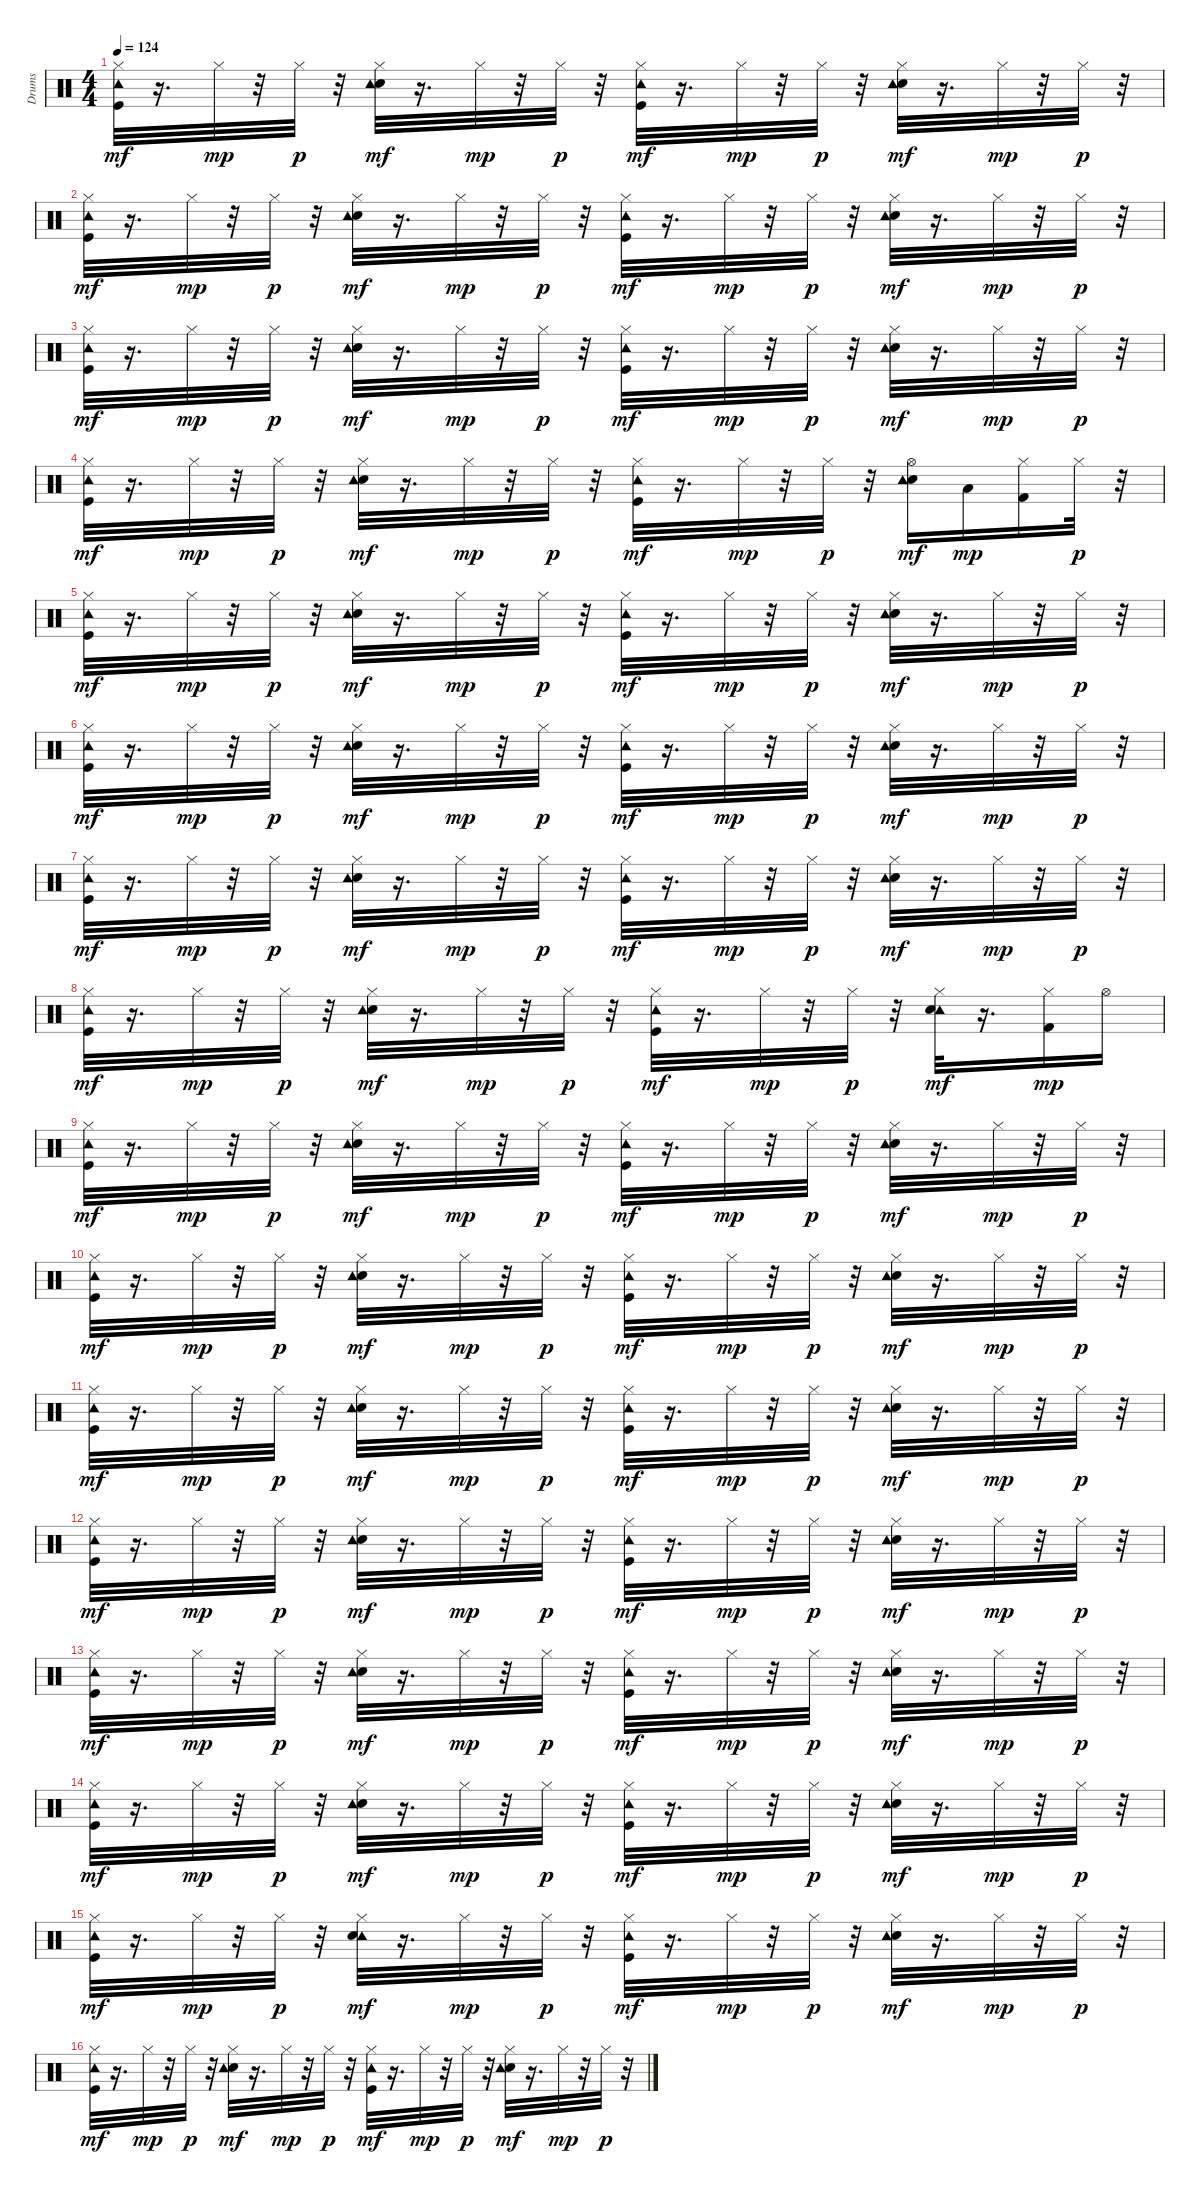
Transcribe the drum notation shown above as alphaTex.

\track ("Drums" "Drums") {instrument percussion}
\staff {score}
\articulation defaults
\ts (4 4)
\tempo 124
\clef neutral
\ks c
("Kick (hit)" "Tambourine (hit)" "Hi-Hat (closed)").32{dy mf} r.16{d} "Hi-Hat (closed)".32{dy mp} r.32 "Hi-Hat (closed)".32{dy p} r.32 ("Snare (hit) 2" "Tambourine (hit)" "Hi-Hat (closed)").32{dy mf} r.16{d} "Hi-Hat (closed)".32{dy mp} r.32 "Hi-Hat (closed)".32{dy p} r.32 ("Kick (hit)" "Tambourine (hit)" "Hi-Hat (closed)").32{dy mf} r.16{d} "Hi-Hat (closed)".32{dy mp} r.32 "Hi-Hat (closed)".32{dy p} r.32 ("Snare (hit) 2" "Tambourine (hit)" "Hi-Hat (closed)").32{dy mf} r.16{d} "Hi-Hat (closed)".32{dy mp} r.32 "Hi-Hat (closed)".32{dy p} r.32 |
("Tambourine (hit)" "Hi-Hat (closed)" "Kick (hit)").32{dy mf} r.16{d} "Hi-Hat (closed)".32{dy mp} r.32 "Hi-Hat (closed)".32{dy p} r.32 ("Hi-Hat (closed)" "Snare (hit) 2" "Tambourine (hit)").32{dy mf} r.16{d} "Hi-Hat (closed)".32{dy mp} r.32 "Hi-Hat (closed)".32{dy p} r.32 ("Kick (hit)" "Tambourine (hit)" "Hi-Hat (closed)").32{dy mf} r.16{d} "Hi-Hat (closed)".32{dy mp} r.32 "Hi-Hat (closed)".32{dy p} r.32 ("Snare (hit) 2" "Tambourine (hit)" "Hi-Hat (closed)").32{dy mf} r.16{d} "Hi-Hat (closed)".32{dy mp} r.32 "Hi-Hat (closed)".32{dy p} r.32 |
("Hi-Hat (closed)" "Tambourine (hit)" "Kick (hit)").32{dy mf} r.16{d} "Hi-Hat (closed)".32{dy mp} r.32 "Hi-Hat (closed)".32{dy p} r.32 ("Snare (hit) 2" "Tambourine (hit)" "Hi-Hat (closed)").32{dy mf} r.16{d} "Hi-Hat (closed)".32{dy mp} r.32 "Hi-Hat (closed)".32{dy p} r.32 ("Kick (hit)" "Tambourine (hit)" "Hi-Hat (closed)").32{dy mf} r.16{d} "Hi-Hat (closed)".32{dy mp} r.32 "Hi-Hat (closed)".32{dy p} r.32 ("Snare (hit) 2" "Tambourine (hit)" "Hi-Hat (closed)").32{dy mf} r.16{d} "Hi-Hat (closed)".32{dy mp} r.32 "Hi-Hat (closed)".32{dy p} r.32 |
("Tambourine (hit)" "Hi-Hat (closed)" "Kick (hit)").32{dy mf} r.16{d} "Hi-Hat (closed)".32{dy mp} r.32 "Hi-Hat (closed)".32{dy p} r.32 ("Hi-Hat (closed)" "Snare (hit) 2" "Tambourine (hit)").32{dy mf} r.16{d} "Hi-Hat (closed)".32{dy mp} r.32 "Hi-Hat (closed)".32{dy p} r.32 ("Kick (hit)" "Tambourine (hit)" "Hi-Hat (closed)").32{dy mf} r.16{d} "Hi-Hat (closed)".32{dy mp} r.32 "Hi-Hat (closed)".32{dy p} r.32 ("Hi-Hat (open)" "Snare (hit) 2" "Tambourine (hit)").16{dy mf} "Low Floor Tom (hit)".16{dy mp} ("Hi-Hat (closed)" "Kick (hit) 2").16 "Hi-Hat (closed)".32{dy p} r.32 |
("Tambourine (hit)" "Hi-Hat (closed)" "Kick (hit)").32{dy mf} r.16{d} "Hi-Hat (closed)".32{dy mp} r.32 "Hi-Hat (closed)".32{dy p} r.32 ("Snare (hit) 2" "Tambourine (hit)" "Hi-Hat (closed)").32{dy mf} r.16{d} "Hi-Hat (closed)".32{dy mp} r.32 "Hi-Hat (closed)".32{dy p} r.32 ("Hi-Hat (closed)" "Tambourine (hit)" "Kick (hit)").32{dy mf} r.16{d} "Hi-Hat (closed)".32{dy mp} r.32 "Hi-Hat (closed)".32{dy p} r.32 ("Snare (hit) 2" "Tambourine (hit)" "Hi-Hat (closed)").32{dy mf} r.16{d} "Hi-Hat (closed)".32{dy mp} r.32 "Hi-Hat (closed)".32{dy p} r.32 |
("Tambourine (hit)" "Hi-Hat (closed)" "Kick (hit)").32{dy mf} r.16{d} "Hi-Hat (closed)".32{dy mp} r.32 "Hi-Hat (closed)".32{dy p} r.32 ("Snare (hit) 2" "Tambourine (hit)" "Hi-Hat (closed)").32{dy mf} r.16{d} "Hi-Hat (closed)".32{dy mp} r.32 "Hi-Hat (closed)".32{dy p} r.32 ("Kick (hit)" "Tambourine (hit)" "Hi-Hat (closed)").32{dy mf} r.16{d} "Hi-Hat (closed)".32{dy mp} r.32 "Hi-Hat (closed)".32{dy p} r.32 ("Hi-Hat (closed)" "Snare (hit) 2" "Tambourine (hit)").32{dy mf} r.16{d} "Hi-Hat (closed)".32{dy mp} r.32 "Hi-Hat (closed)".32{dy p} r.32 |
("Tambourine (hit)" "Hi-Hat (closed)" "Kick (hit)").32{dy mf} r.16{d} "Hi-Hat (closed)".32{dy mp} r.32 "Hi-Hat (closed)".32{dy p} r.32 ("Snare (hit) 2" "Tambourine (hit)" "Hi-Hat (closed)").32{dy mf} r.16{d} "Hi-Hat (closed)".32{dy mp} r.32 "Hi-Hat (closed)".32{dy p} r.32 ("Tambourine (hit)" "Kick (hit)" "Hi-Hat (closed)").32{dy mf} r.16{d} "Hi-Hat (closed)".32{dy mp} r.32 "Hi-Hat (closed)".32{dy p} r.32 ("Snare (hit) 2" "Tambourine (hit)" "Hi-Hat (closed)").32{dy mf} r.16{d} "Hi-Hat (closed)".32{dy mp} r.32 "Hi-Hat (closed)".32{dy p} r.32 |
("Tambourine (hit)" "Hi-Hat (closed)" "Kick (hit)").32{dy mf} r.16{d} "Hi-Hat (closed)".32{dy mp} r.32 "Hi-Hat (closed)".32{dy p} r.32 ("Snare (hit) 2" "Tambourine (hit)" "Hi-Hat (closed)").32{dy mf} r.16{d} "Hi-Hat (closed)".32{dy mp} r.32 "Hi-Hat (closed)".32{dy p} r.32 ("Kick (hit)" "Tambourine (hit)" "Hi-Hat (closed)").32{dy mf} r.16{d} "Hi-Hat (closed)".32{dy mp} r.32 "Hi-Hat (closed)".32{dy p} r.32 ("Tambourine (hit)" "Hi-Hat (closed)" "Snare (hit) 2").32{dy mf} r.16{d} ("Kick (hit) 2" "Hi-Hat (closed)").16{dy mp} "Hi-Hat (open)".16 |
("Tambourine (hit)" "Hi-Hat (closed)" "Kick (hit)").32{dy mf} r.16{d} "Hi-Hat (closed)".32{dy mp} r.32 "Hi-Hat (closed)".32{dy p} r.32 ("Snare (hit) 2" "Tambourine (hit)" "Hi-Hat (closed)").32{dy mf} r.16{d} "Hi-Hat (closed)".32{dy mp} r.32 "Hi-Hat (closed)".32{dy p} r.32 ("Kick (hit)" "Tambourine (hit)" "Hi-Hat (closed)").32{dy mf} r.16{d} "Hi-Hat (closed)".32{dy mp} r.32 "Hi-Hat (closed)".32{dy p} r.32 ("Snare (hit) 2" "Tambourine (hit)" "Hi-Hat (closed)").32{dy mf} r.16{d} "Hi-Hat (closed)".32{dy mp} r.32 "Hi-Hat (closed)".32{dy p} r.32 |
("Kick (hit)" "Tambourine (hit)" "Hi-Hat (closed)").32{dy mf} r.16{d} "Hi-Hat (closed)".32{dy mp} r.32 "Hi-Hat (closed)".32{dy p} r.32 ("Snare (hit) 2" "Tambourine (hit)" "Hi-Hat (closed)").32{dy mf} r.16{d} "Hi-Hat (closed)".32{dy mp} r.32 "Hi-Hat (closed)".32{dy p} r.32 ("Kick (hit)" "Tambourine (hit)" "Hi-Hat (closed)").32{dy mf} r.16{d} "Hi-Hat (closed)".32{dy mp} r.32 "Hi-Hat (closed)".32{dy p} r.32 ("Snare (hit) 2" "Tambourine (hit)" "Hi-Hat (closed)").32{dy mf} r.16{d} "Hi-Hat (closed)".32{dy mp} r.32 "Hi-Hat (closed)".32{dy p} r.32 |
("Tambourine (hit)" "Hi-Hat (closed)" "Kick (hit)").32{dy mf} r.16{d} "Hi-Hat (closed)".32{dy mp} r.32 "Hi-Hat (closed)".32{dy p} r.32 ("Hi-Hat (closed)" "Snare (hit) 2" "Tambourine (hit)").32{dy mf} r.16{d} "Hi-Hat (closed)".32{dy mp} r.32 "Hi-Hat (closed)".32{dy p} r.32 ("Kick (hit)" "Tambourine (hit)" "Hi-Hat (closed)").32{dy mf} r.16{d} "Hi-Hat (closed)".32{dy mp} r.32 "Hi-Hat (closed)".32{dy p} r.32 ("Snare (hit) 2" "Tambourine (hit)" "Hi-Hat (closed)").32{dy mf} r.16{d} "Hi-Hat (closed)".32{dy mp} r.32 "Hi-Hat (closed)".32{dy p} r.32 |
("Hi-Hat (closed)" "Tambourine (hit)" "Kick (hit)").32{dy mf} r.16{d} "Hi-Hat (closed)".32{dy mp} r.32 "Hi-Hat (closed)".32{dy p} r.32 ("Snare (hit) 2" "Tambourine (hit)" "Hi-Hat (closed)").32{dy mf} r.16{d} "Hi-Hat (closed)".32{dy mp} r.32 "Hi-Hat (closed)".32{dy p} r.32 ("Kick (hit)" "Tambourine (hit)" "Hi-Hat (closed)").32{dy mf} r.16{d} "Hi-Hat (closed)".32{dy mp} r.32 "Hi-Hat (closed)".32{dy p} r.32 ("Snare (hit) 2" "Tambourine (hit)" "Hi-Hat (closed)").32{dy mf} r.16{d} "Hi-Hat (closed)".32{dy mp} r.32 "Hi-Hat (closed)".32{dy p} r.32 |
("Tambourine (hit)" "Hi-Hat (closed)" "Kick (hit)").32{dy mf} r.16{d} "Hi-Hat (closed)".32{dy mp} r.32 "Hi-Hat (closed)".32{dy p} r.32 ("Hi-Hat (closed)" "Snare (hit) 2" "Tambourine (hit)").32{dy mf} r.16{d} "Hi-Hat (closed)".32{dy mp} r.32 "Hi-Hat (closed)".32{dy p} r.32 ("Kick (hit)" "Tambourine (hit)" "Hi-Hat (closed)").32{dy mf} r.16{d} "Hi-Hat (closed)".32{dy mp} r.32 "Hi-Hat (closed)".32{dy p} r.32 ("Snare (hit) 2" "Tambourine (hit)" "Hi-Hat (closed)").32{dy mf} r.16{d} "Hi-Hat (closed)".32{dy mp} r.32 "Hi-Hat (closed)".32{dy p} r.32 |
("Tambourine (hit)" "Hi-Hat (closed)" "Kick (hit)").32{dy mf} r.16{d} "Hi-Hat (closed)".32{dy mp} r.32 "Hi-Hat (closed)".32{dy p} r.32 ("Snare (hit) 2" "Tambourine (hit)" "Hi-Hat (closed)").32{dy mf} r.16{d} "Hi-Hat (closed)".32{dy mp} r.32 "Hi-Hat (closed)".32{dy p} r.32 ("Hi-Hat (closed)" "Kick (hit)" "Tambourine (hit)").32{dy mf} r.16{d} "Hi-Hat (closed)".32{dy mp} r.32 "Hi-Hat (closed)".32{dy p} r.32 ("Snare (hit) 2" "Tambourine (hit)" "Hi-Hat (closed)").32{dy mf} r.16{d} "Hi-Hat (closed)".32{dy mp} r.32 "Hi-Hat (closed)".32{dy p} r.32 |
("Tambourine (hit)" "Hi-Hat (closed)" "Kick (hit)").32{dy mf} r.16{d} "Hi-Hat (closed)".32{dy mp} r.32 "Hi-Hat (closed)".32{dy p} r.32 ("Tambourine (hit)" "Snare (hit) 2" "Hi-Hat (closed)").32{dy mf} r.16{d} "Hi-Hat (closed)".32{dy mp} r.32 "Hi-Hat (closed)".32{dy p} r.32 ("Kick (hit)" "Tambourine (hit)" "Hi-Hat (closed)").32{dy mf} r.16{d} "Hi-Hat (closed)".32{dy mp} r.32 "Hi-Hat (closed)".32{dy p} r.32 ("Snare (hit) 2" "Hi-Hat (closed)" "Tambourine (hit)").32{dy mf} r.16{d} "Hi-Hat (closed)".32{dy mp} r.32 "Hi-Hat (closed)".32{dy p} r.32 |
("Hi-Hat (closed)" "Tambourine (hit)" "Kick (hit)").32{dy mf} r.16{d} "Hi-Hat (closed)".32{dy mp} r.32 "Hi-Hat (closed)".32{dy p} r.32 ("Snare (hit) 2" "Tambourine (hit)" "Hi-Hat (closed)").32{dy mf} r.16{d} "Hi-Hat (closed)".32{dy mp} r.32 "Hi-Hat (closed)".32{dy p} r.32 ("Kick (hit)" "Tambourine (hit)" "Hi-Hat (closed)").32{dy mf} r.16{d} "Hi-Hat (closed)".32{dy mp} r.32 "Hi-Hat (closed)".32{dy p} r.32 ("Snare (hit) 2" "Tambourine (hit)" "Hi-Hat (closed)").32{dy mf} r.16{d} "Hi-Hat (closed)".32{dy mp} r.32 "Hi-Hat (closed)".32{dy p} r.32
